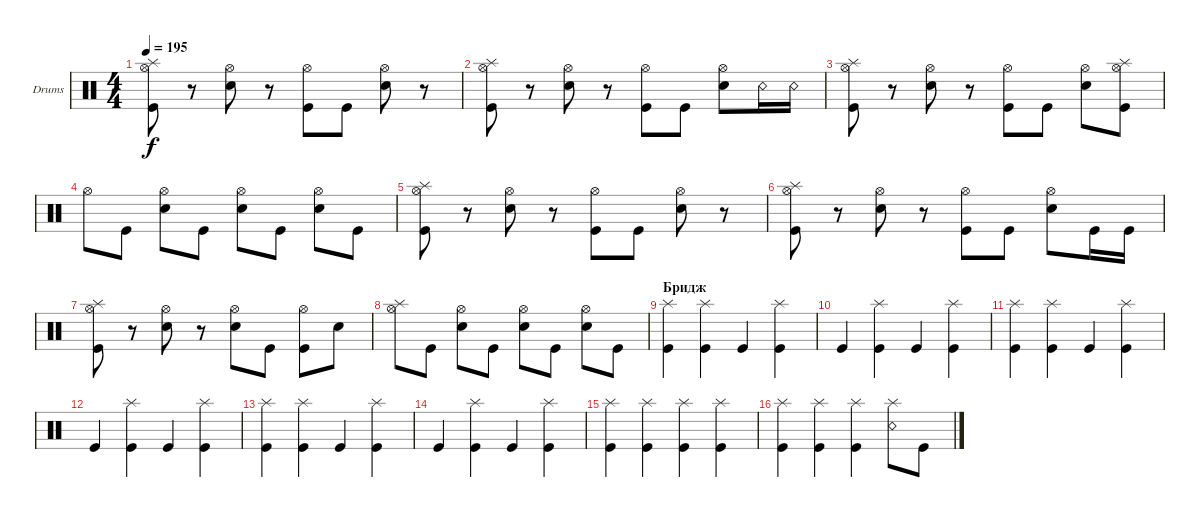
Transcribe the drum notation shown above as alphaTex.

\defaultSystemsLayout 4
\bracketExtendMode groupsimilarinstruments
\firstSystemTrackNameOrientation horizontal
\otherSystemsTrackNameOrientation horizontal
\track ("Drumkit" "Drums") {instrument percussion}
\staff {score}
\articulation defaults
\ts (4 4)
\tempo 195
\clef neutral
\ks c
("Kick (hit)" "Hi-Hat (open)" "Splash (hit)").8{dy f} r.8 ("Hi-Hat (open)" "Snare (hit) 2").8 r.8 ("Hi-Hat (open)" "Kick (hit)").8 "Kick (hit)".8 ("Hi-Hat (open)" "Snare (hit) 2").8 r.8 |
("Kick (hit)" "Hi-Hat (open)" "Splash (hit)").8 r.8 ("Hi-Hat (open)" "Snare (hit) 2").8 r.8 ("Hi-Hat (open)" "Kick (hit)").8 "Kick (hit)".8 ("Hi-Hat (open)" "Snare (hit) 2").8 "Snare (rim shot)".16 "Snare (rim shot)".16 |
("Kick (hit)" "Hi-Hat (open)" "Splash (hit)").8 r.8 ("Hi-Hat (open)" "Snare (hit) 2").8 r.8 ("Hi-Hat (open)" "Kick (hit)").8 "Kick (hit)".8 ("Hi-Hat (open)" "Snare (hit) 2").8 ("Hi-Hat (open)" "Splash (hit)" "Kick (hit)").8 |
"Hi-Hat (open)".8 "Kick (hit)".8 ("Hi-Hat (open)" "Snare (hit) 2").8 "Kick (hit)".8 ("Hi-Hat (open)" "Snare (hit) 2").8 "Kick (hit)".8 ("Hi-Hat (open)" "Snare (hit) 2").8 "Kick (hit)".8 |
("Kick (hit)" "Hi-Hat (open)" "Splash (hit)").8 r.8 ("Hi-Hat (open)" "Snare (hit) 2").8 r.8 ("Hi-Hat (open)" "Kick (hit)").8 "Kick (hit)".8 ("Hi-Hat (open)" "Snare (hit) 2").8 r.8 |
("Kick (hit)" "Hi-Hat (open)" "Splash (hit)").8 r.8 ("Hi-Hat (open)" "Snare (hit) 2").8 r.8 ("Hi-Hat (open)" "Kick (hit)").8 "Kick (hit)".8 ("Hi-Hat (open)" "Snare (hit) 2").8 "Kick (hit)".16 "Kick (hit)".16 |
("Kick (hit)" "Hi-Hat (open)" "Splash (hit)").8 r.8 ("Snare (hit) 2" "Hi-Hat (open)").8 r.8 ("Snare (hit) 2" "Hi-Hat (open)").8 "Kick (hit)".8 ("Kick (hit)" "Hi-Hat (open)").8 "Snare (hit) 2".8 |
("Hi-Hat (open)" "Splash (hit)").8 "Kick (hit)".8 ("Snare (hit) 2" "Hi-Hat (open)").8 "Kick (hit)".8 ("Snare (hit) 2" "Hi-Hat (open)").8 "Kick (hit)".8 ("Snare (hit) 2" "Hi-Hat (open)").8 "Kick (hit)".8 |
\section ("" "Бридж")
("Kick (hit)" "Splash (hit)").4 ("Kick (hit)" "Splash (hit)").4 "Kick (hit)".4 ("Kick (hit)" "Splash (hit)").4 |
"Kick (hit)".4 ("Kick (hit)" "Splash (hit)").4 "Kick (hit)".4 ("Kick (hit)" "Splash (hit)").4 |
("Kick (hit)" "Splash (hit)").4 ("Kick (hit)" "Splash (hit)").4 "Kick (hit)".4 ("Kick (hit)" "Splash (hit)").4 |
"Kick (hit)".4 ("Kick (hit)" "Splash (hit)").4 "Kick (hit)".4 ("Kick (hit)" "Splash (hit)").4 |
("Kick (hit)" "Splash (hit)").4 ("Kick (hit)" "Splash (hit)").4 "Kick (hit)".4 ("Kick (hit)" "Splash (hit)").4 |
"Kick (hit)".4 ("Kick (hit)" "Splash (hit)").4 "Kick (hit)".4 ("Kick (hit)" "Splash (hit)").4 |
("Kick (hit)" "Splash (hit)").4 ("Kick (hit)" "Splash (hit)").4 ("Kick (hit)" "Splash (hit)").4 ("Kick (hit)" "Splash (hit)").4 |
("Kick (hit)" "Splash (hit)").4 ("Kick (hit)" "Splash (hit)").4 ("Splash (hit)" "Kick (hit)").4 ("Splash (hit)" "Snare (rim shot)").8 "Kick (hit)".8
